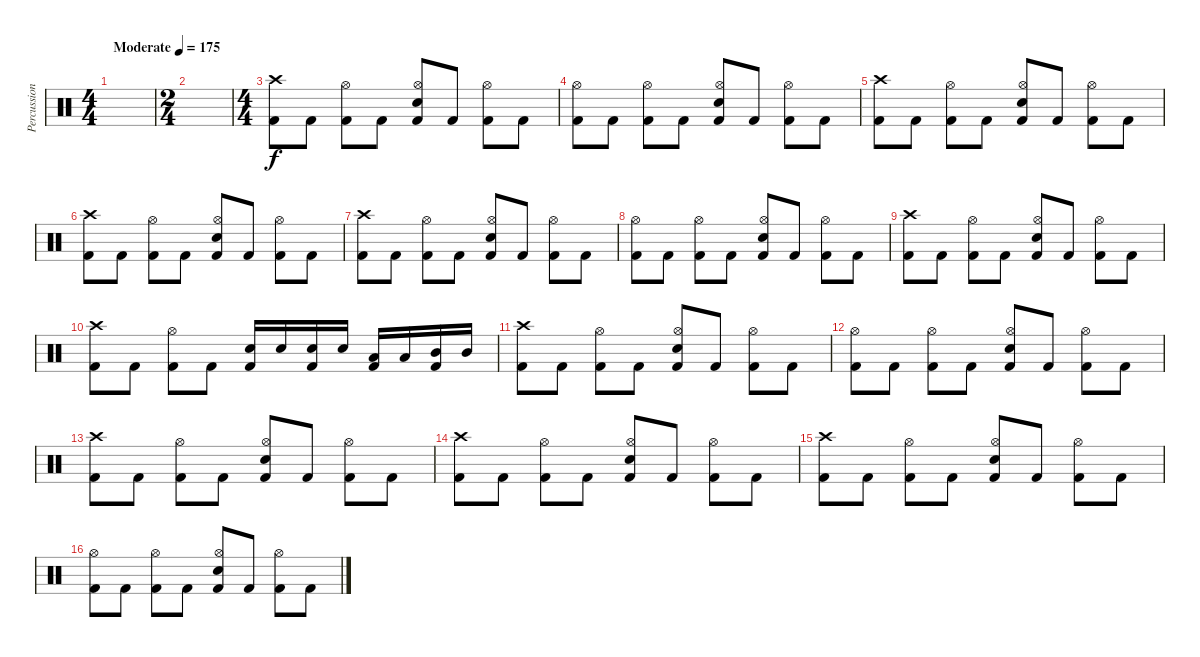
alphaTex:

\track ("Percussion" "Percussion") {instrument percussion}
\staff {score}
\articulation defaults
\ts (4 4)
\tempo (175 "Moderate")
\clef neutral
\ks c
|
\ts (2 4)
|
\ts (4 4)
("Kick (hit) 2" "Crash high (hit)").8 "Kick (hit) 2".8 ("Kick (hit) 2" "Hi-Hat (open)").8 "Kick (hit) 2".8 ("Kick (hit) 2" "Snare (hit) 2" "Hi-Hat (open)").8 "Kick (hit) 2".8 ("Kick (hit) 2" "Hi-Hat (open)").8 "Kick (hit) 2".8 |
("Kick (hit) 2" "Hi-Hat (open)").8 "Kick (hit) 2".8 ("Kick (hit) 2" "Hi-Hat (open)").8 "Kick (hit) 2".8 ("Kick (hit) 2" "Snare (hit) 2" "Hi-Hat (open)").8 "Kick (hit) 2".8 ("Kick (hit) 2" "Hi-Hat (open)").8 "Kick (hit) 2".8 |
("Kick (hit) 2" "Crash high (hit)").8 "Kick (hit) 2".8 ("Kick (hit) 2" "Hi-Hat (open)").8 "Kick (hit) 2".8 ("Kick (hit) 2" "Snare (hit) 2" "Hi-Hat (open)").8 "Kick (hit) 2".8 ("Kick (hit) 2" "Hi-Hat (open)").8 "Kick (hit) 2".8 |
("Kick (hit) 2" "Crash high (hit)").8 "Kick (hit) 2".8 ("Kick (hit) 2" "Hi-Hat (open)").8 "Kick (hit) 2".8 ("Kick (hit) 2" "Snare (hit) 2" "Hi-Hat (open)").8 "Kick (hit) 2".8 ("Kick (hit) 2" "Hi-Hat (open)").8 "Kick (hit) 2".8 |
("Kick (hit) 2" "Crash high (hit)").8 "Kick (hit) 2".8 ("Kick (hit) 2" "Hi-Hat (open)").8 "Kick (hit) 2".8 ("Kick (hit) 2" "Snare (hit) 2" "Hi-Hat (open)").8 "Kick (hit) 2".8 ("Kick (hit) 2" "Hi-Hat (open)").8 "Kick (hit) 2".8 |
("Kick (hit) 2" "Hi-Hat (open)").8 "Kick (hit) 2".8 ("Kick (hit) 2" "Hi-Hat (open)").8 "Kick (hit) 2".8 ("Kick (hit) 2" "Snare (hit) 2" "Hi-Hat (open)").8 "Kick (hit) 2".8 ("Kick (hit) 2" "Hi-Hat (open)").8 "Kick (hit) 2".8 |
("Kick (hit) 2" "Crash high (hit)").8 "Kick (hit) 2".8 ("Kick (hit) 2" "Hi-Hat (open)").8 "Kick (hit) 2".8 ("Kick (hit) 2" "Snare (hit) 2" "Hi-Hat (open)").8 "Kick (hit) 2".8 ("Kick (hit) 2" "Hi-Hat (open)").8 "Kick (hit) 2".8 |
("Kick (hit) 2" "Crash high (hit)").8 "Kick (hit) 2".8 ("Kick (hit) 2" "Hi-Hat (open)").8 "Kick (hit) 2".8 ("Kick (hit) 2" "Snare (hit) 2").16 "Snare (hit) 2".16 ("Kick (hit) 2" "Snare (hit) 2").16 "Snare (hit) 2".16 ("Kick (hit) 2" "Low Tom (hit)").16 "Low Tom (hit)".16 ("Kick (hit) 2" "Mid Tom (hit)").16 "Mid Tom (hit)".16 |
("Kick (hit) 2" "Crash high (hit)").8 "Kick (hit) 2".8 ("Kick (hit) 2" "Hi-Hat (open)").8 "Kick (hit) 2".8 ("Kick (hit) 2" "Snare (hit) 2" "Hi-Hat (open)").8 "Kick (hit) 2".8 ("Kick (hit) 2" "Hi-Hat (open)").8 "Kick (hit) 2".8 |
("Kick (hit) 2" "Hi-Hat (open)").8 "Kick (hit) 2".8 ("Kick (hit) 2" "Hi-Hat (open)").8 "Kick (hit) 2".8 ("Kick (hit) 2" "Snare (hit) 2" "Hi-Hat (open)").8 "Kick (hit) 2".8 ("Kick (hit) 2" "Hi-Hat (open)").8 "Kick (hit) 2".8 |
("Kick (hit) 2" "Crash high (hit)").8 "Kick (hit) 2".8 ("Kick (hit) 2" "Hi-Hat (open)").8 "Kick (hit) 2".8 ("Kick (hit) 2" "Snare (hit) 2" "Hi-Hat (open)").8 "Kick (hit) 2".8 ("Kick (hit) 2" "Hi-Hat (open)").8 "Kick (hit) 2".8 |
("Kick (hit) 2" "Crash high (hit)").8 "Kick (hit) 2".8 ("Kick (hit) 2" "Hi-Hat (open)").8 "Kick (hit) 2".8 ("Kick (hit) 2" "Snare (hit) 2" "Hi-Hat (open)").8 "Kick (hit) 2".8 ("Kick (hit) 2" "Hi-Hat (open)").8 "Kick (hit) 2".8 |
("Kick (hit) 2" "Crash high (hit)").8 "Kick (hit) 2".8 ("Kick (hit) 2" "Hi-Hat (open)").8 "Kick (hit) 2".8 ("Kick (hit) 2" "Snare (hit) 2" "Hi-Hat (open)").8 "Kick (hit) 2".8 ("Kick (hit) 2" "Hi-Hat (open)").8 "Kick (hit) 2".8 |
("Kick (hit) 2" "Hi-Hat (open)").8 "Kick (hit) 2".8 ("Kick (hit) 2" "Hi-Hat (open)").8 "Kick (hit) 2".8 ("Kick (hit) 2" "Snare (hit) 2" "Hi-Hat (open)").8 "Kick (hit) 2".8 ("Kick (hit) 2" "Hi-Hat (open)").8 "Kick (hit) 2".8
